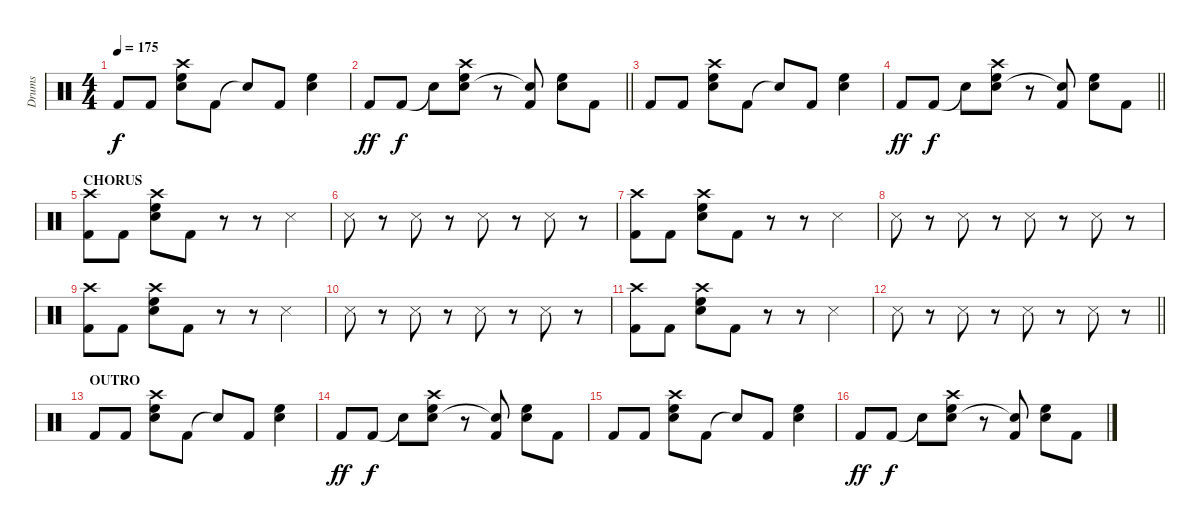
\track ("Drums" "Drums") {instrument percussion}
\staff {score}
\articulation defaults
\ts (4 4)
\tempo 175
\clef neutral
\ks c "Kick (hit) 2".8{dy f} "Kick (hit) 2".8
("High Floor Tom (hit)" "Electric Snare (hit)" "Crash high (hit)").8 "Kick (hit) 2".8 "Snare (hit)"{t}.8 "Kick (hit) 2".8 ("High Floor Tom (hit)" "Electric Snare (hit)").4 |
\barLineRight lightlight "Kick (hit) 2".8{dy ff} "Kick (hit) 2".8{dy f} "Snare (hit)"{t}.8
("High Floor Tom (hit)" "Electric Snare (hit)" "Crash high (hit)").8 r.8 ("Kick (hit) 2" "Snare (hit)"{t}).8 ("High Floor Tom (hit)" "Electric Snare (hit)").8 "Kick (hit) 2".8 |
"Kick (hit) 2".8 "Kick (hit) 2".8 ("High Floor Tom (hit)" "Electric Snare (hit)" "Crash high (hit)").8 "Kick (hit) 2".8 "Snare (hit)"{t}.8 "Kick (hit) 2".8 ("High Floor Tom (hit)" "Electric Snare (hit)").4 |
\barLineRight lightlight "Kick (hit) 2".8{dy ff} "Kick (hit) 2".8{dy f} "Snare (hit)"{t}.8
("High Floor Tom (hit)" "Electric Snare (hit)" "Crash high (hit)").8 r.8 ("Kick (hit) 2" "Snare (hit)"{t}).8 ("High Floor Tom (hit)" "Electric Snare (hit)").8 "Kick (hit) 2".8 |
\section ("" "CHORUS")
("Kick (hit) 2" "Crash high (hit)").8 "Kick (hit) 2".8 ("High Floor Tom (hit)" "Electric Snare (hit)" "Crash high (hit)").8 "Kick (hit) 2".8 r.8 r.8 "Metronome (hit)".4 |
"Metronome (hit)".8 r.8 "Metronome (hit)".8 r.8 "Metronome (hit)".8 r.8 "Metronome (hit)".8 r.8 |
("Kick (hit) 2" "Crash high (hit)").8 "Kick (hit) 2".8 ("High Floor Tom (hit)" "Electric Snare (hit)" "Crash high (hit)").8 "Kick (hit) 2".8 r.8 r.8 "Metronome (hit)".4 |
"Metronome (hit)".8 r.8 "Metronome (hit)".8 r.8 "Metronome (hit)".8 r.8 "Metronome (hit)".8 r.8 |
("Kick (hit) 2" "Crash high (hit)").8 "Kick (hit) 2".8 ("High Floor Tom (hit)" "Electric Snare (hit)" "Crash high (hit)").8 "Kick (hit) 2".8 r.8 r.8 "Metronome (hit)".4 |
"Metronome (hit)".8 r.8 "Metronome (hit)".8 r.8 "Metronome (hit)".8 r.8 "Metronome (hit)".8 r.8 |
("Kick (hit) 2" "Crash high (hit)").8 "Kick (hit) 2".8 ("High Floor Tom (hit)" "Electric Snare (hit)" "Crash high (hit)").8 "Kick (hit) 2".8 r.8 r.8 "Metronome (hit)".4 |
\barLineRight lightlight "Metronome (hit)".8
r.8 "Metronome (hit)".8 r.8 "Metronome (hit)".8 r.8 "Metronome (hit)".8 r.8 |
\section ("" "OUTRO")
"Kick (hit) 2".8 "Kick (hit) 2".8 ("High Floor Tom (hit)" "Electric Snare (hit)" "Crash high (hit)").8 "Kick (hit) 2".8 "Snare (hit)"{t}.8 "Kick (hit) 2".8 ("High Floor Tom (hit)" "Electric Snare (hit)").4 |
"Kick (hit) 2".8{dy ff} "Kick (hit) 2".8{dy f} "Snare (hit)"{t}.8 ("High Floor Tom (hit)" "Electric Snare (hit)" "Crash high (hit)").8 r.8 ("Kick (hit) 2" "Snare (hit)"{t}).8 ("High Floor Tom (hit)" "Electric Snare (hit)").8 "Kick (hit) 2".8 |
"Kick (hit) 2".8 "Kick (hit) 2".8 ("High Floor Tom (hit)" "Electric Snare (hit)" "Crash high (hit)").8 "Kick (hit) 2".8 "Snare (hit)"{t}.8 "Kick (hit) 2".8 ("High Floor Tom (hit)" "Electric Snare (hit)").4 |
"Kick (hit) 2".8{dy ff} "Kick (hit) 2".8{dy f} "Snare (hit)"{t}.8 ("High Floor Tom (hit)" "Electric Snare (hit)" "Crash high (hit)").8 r.8 ("Kick (hit) 2" "Snare (hit)"{t}).8 ("High Floor Tom (hit)" "Electric Snare (hit)").8 "Kick (hit) 2".8
